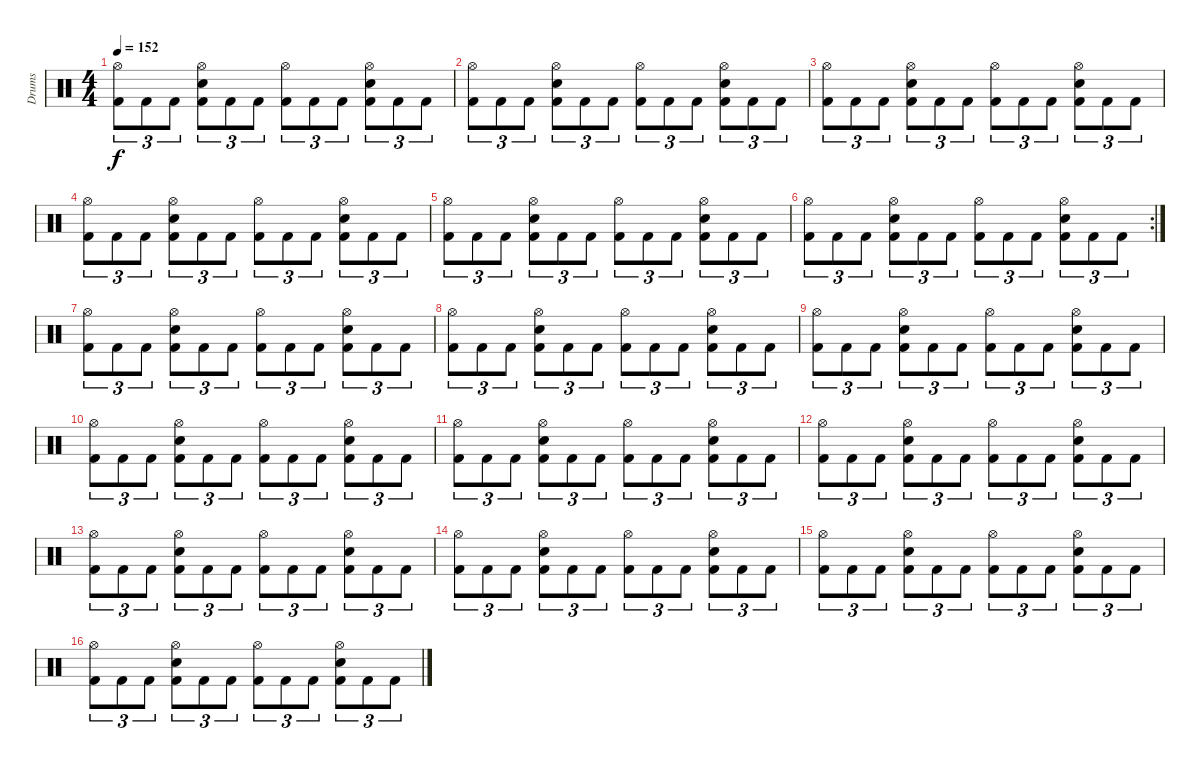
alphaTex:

\track ("Drums" "Drums") {instrument percussion}
\staff {score}
\articulation defaults
\ts (4 4)
\tempo 152
\clef neutral
\ks c
("Hi-Hat (open)" "Kick (hit) 2").8{tu (3 2) dy f} "Kick (hit) 2".8{tu (3 2)} "Kick (hit) 2".8{tu (3 2)} ("Hi-Hat (open)" "Snare (hit) 2" "Kick (hit) 2").8{tu (3 2)} "Kick (hit) 2".8{tu (3 2)} "Kick (hit) 2".8{tu (3 2)} ("Hi-Hat (open)" "Kick (hit) 2").8{tu (3 2)} "Kick (hit) 2".8{tu (3 2)} "Kick (hit) 2".8{tu (3 2)} ("Hi-Hat (open)" "Snare (hit) 2" "Kick (hit) 2").8{tu (3 2)} "Kick (hit) 2".8{tu (3 2)} "Kick (hit) 2".8{tu (3 2)} |
("Hi-Hat (open)" "Kick (hit) 2").8{tu (3 2)} "Kick (hit) 2".8{tu (3 2)} "Kick (hit) 2".8{tu (3 2)} ("Hi-Hat (open)" "Snare (hit) 2" "Kick (hit) 2").8{tu (3 2)} "Kick (hit) 2".8{tu (3 2)} "Kick (hit) 2".8{tu (3 2)} ("Hi-Hat (open)" "Kick (hit) 2").8{tu (3 2)} "Kick (hit) 2".8{tu (3 2)} "Kick (hit) 2".8{tu (3 2)} ("Hi-Hat (open)" "Snare (hit) 2" "Kick (hit) 2").8{tu (3 2)} "Kick (hit) 2".8{tu (3 2)} "Kick (hit) 2".8{tu (3 2)} |
("Hi-Hat (open)" "Kick (hit) 2").8{tu (3 2)} "Kick (hit) 2".8{tu (3 2)} "Kick (hit) 2".8{tu (3 2)} ("Hi-Hat (open)" "Snare (hit) 2" "Kick (hit) 2").8{tu (3 2)} "Kick (hit) 2".8{tu (3 2)} "Kick (hit) 2".8{tu (3 2)} ("Hi-Hat (open)" "Kick (hit) 2").8{tu (3 2)} "Kick (hit) 2".8{tu (3 2)} "Kick (hit) 2".8{tu (3 2)} ("Hi-Hat (open)" "Snare (hit) 2" "Kick (hit) 2").8{tu (3 2)} "Kick (hit) 2".8{tu (3 2)} "Kick (hit) 2".8{tu (3 2)} |
("Hi-Hat (open)" "Kick (hit) 2").8{tu (3 2)} "Kick (hit) 2".8{tu (3 2)} "Kick (hit) 2".8{tu (3 2)} ("Hi-Hat (open)" "Snare (hit) 2" "Kick (hit) 2").8{tu (3 2)} "Kick (hit) 2".8{tu (3 2)} "Kick (hit) 2".8{tu (3 2)} ("Hi-Hat (open)" "Kick (hit) 2").8{tu (3 2)} "Kick (hit) 2".8{tu (3 2)} "Kick (hit) 2".8{tu (3 2)} ("Hi-Hat (open)" "Snare (hit) 2" "Kick (hit) 2").8{tu (3 2)} "Kick (hit) 2".8{tu (3 2)} "Kick (hit) 2".8{tu (3 2)} |
("Hi-Hat (open)" "Kick (hit) 2").8{tu (3 2)} "Kick (hit) 2".8{tu (3 2)} "Kick (hit) 2".8{tu (3 2)} ("Hi-Hat (open)" "Snare (hit) 2" "Kick (hit) 2").8{tu (3 2)} "Kick (hit) 2".8{tu (3 2)} "Kick (hit) 2".8{tu (3 2)} ("Hi-Hat (open)" "Kick (hit) 2").8{tu (3 2)} "Kick (hit) 2".8{tu (3 2)} "Kick (hit) 2".8{tu (3 2)} ("Hi-Hat (open)" "Snare (hit) 2" "Kick (hit) 2").8{tu (3 2)} "Kick (hit) 2".8{tu (3 2)} "Kick (hit) 2".8{tu (3 2)} |
\rc 2
("Hi-Hat (open)" "Kick (hit) 2").8{tu (3 2)} "Kick (hit) 2".8{tu (3 2)} "Kick (hit) 2".8{tu (3 2)} ("Hi-Hat (open)" "Snare (hit) 2" "Kick (hit) 2").8{tu (3 2)} "Kick (hit) 2".8{tu (3 2)} "Kick (hit) 2".8{tu (3 2)} ("Hi-Hat (open)" "Kick (hit) 2").8{tu (3 2)} "Kick (hit) 2".8{tu (3 2)} "Kick (hit) 2".8{tu (3 2)} ("Hi-Hat (open)" "Snare (hit) 2" "Kick (hit) 2").8{tu (3 2)} "Kick (hit) 2".8{tu (3 2)} "Kick (hit) 2".8{tu (3 2)} |
("Hi-Hat (open)" "Kick (hit) 2").8{tu (3 2)} "Kick (hit) 2".8{tu (3 2)} "Kick (hit) 2".8{tu (3 2)} ("Hi-Hat (open)" "Snare (hit) 2" "Kick (hit) 2").8{tu (3 2)} "Kick (hit) 2".8{tu (3 2)} "Kick (hit) 2".8{tu (3 2)} ("Hi-Hat (open)" "Kick (hit) 2").8{tu (3 2)} "Kick (hit) 2".8{tu (3 2)} "Kick (hit) 2".8{tu (3 2)} ("Hi-Hat (open)" "Snare (hit) 2" "Kick (hit) 2").8{tu (3 2)} "Kick (hit) 2".8{tu (3 2)} "Kick (hit) 2".8{tu (3 2)} |
("Hi-Hat (open)" "Kick (hit) 2").8{tu (3 2)} "Kick (hit) 2".8{tu (3 2)} "Kick (hit) 2".8{tu (3 2)} ("Hi-Hat (open)" "Snare (hit) 2" "Kick (hit) 2").8{tu (3 2)} "Kick (hit) 2".8{tu (3 2)} "Kick (hit) 2".8{tu (3 2)} ("Hi-Hat (open)" "Kick (hit) 2").8{tu (3 2)} "Kick (hit) 2".8{tu (3 2)} "Kick (hit) 2".8{tu (3 2)} ("Hi-Hat (open)" "Snare (hit) 2" "Kick (hit) 2").8{tu (3 2)} "Kick (hit) 2".8{tu (3 2)} "Kick (hit) 2".8{tu (3 2)} |
("Hi-Hat (open)" "Kick (hit) 2").8{tu (3 2)} "Kick (hit) 2".8{tu (3 2)} "Kick (hit) 2".8{tu (3 2)} ("Hi-Hat (open)" "Snare (hit) 2" "Kick (hit) 2").8{tu (3 2)} "Kick (hit) 2".8{tu (3 2)} "Kick (hit) 2".8{tu (3 2)} ("Hi-Hat (open)" "Kick (hit) 2").8{tu (3 2)} "Kick (hit) 2".8{tu (3 2)} "Kick (hit) 2".8{tu (3 2)} ("Hi-Hat (open)" "Snare (hit) 2" "Kick (hit) 2").8{tu (3 2)} "Kick (hit) 2".8{tu (3 2)} "Kick (hit) 2".8{tu (3 2)} |
("Hi-Hat (open)" "Kick (hit) 2").8{tu (3 2)} "Kick (hit) 2".8{tu (3 2)} "Kick (hit) 2".8{tu (3 2)} ("Hi-Hat (open)" "Snare (hit) 2" "Kick (hit) 2").8{tu (3 2)} "Kick (hit) 2".8{tu (3 2)} "Kick (hit) 2".8{tu (3 2)} ("Hi-Hat (open)" "Kick (hit) 2").8{tu (3 2)} "Kick (hit) 2".8{tu (3 2)} "Kick (hit) 2".8{tu (3 2)} ("Hi-Hat (open)" "Snare (hit) 2" "Kick (hit) 2").8{tu (3 2)} "Kick (hit) 2".8{tu (3 2)} "Kick (hit) 2".8{tu (3 2)} |
("Hi-Hat (open)" "Kick (hit) 2").8{tu (3 2)} "Kick (hit) 2".8{tu (3 2)} "Kick (hit) 2".8{tu (3 2)} ("Hi-Hat (open)" "Snare (hit) 2" "Kick (hit) 2").8{tu (3 2)} "Kick (hit) 2".8{tu (3 2)} "Kick (hit) 2".8{tu (3 2)} ("Hi-Hat (open)" "Kick (hit) 2").8{tu (3 2)} "Kick (hit) 2".8{tu (3 2)} "Kick (hit) 2".8{tu (3 2)} ("Hi-Hat (open)" "Snare (hit) 2" "Kick (hit) 2").8{tu (3 2)} "Kick (hit) 2".8{tu (3 2)} "Kick (hit) 2".8{tu (3 2)} |
("Hi-Hat (open)" "Kick (hit) 2").8{tu (3 2)} "Kick (hit) 2".8{tu (3 2)} "Kick (hit) 2".8{tu (3 2)} ("Hi-Hat (open)" "Snare (hit) 2" "Kick (hit) 2").8{tu (3 2)} "Kick (hit) 2".8{tu (3 2)} "Kick (hit) 2".8{tu (3 2)} ("Hi-Hat (open)" "Kick (hit) 2").8{tu (3 2)} "Kick (hit) 2".8{tu (3 2)} "Kick (hit) 2".8{tu (3 2)} ("Hi-Hat (open)" "Snare (hit) 2" "Kick (hit) 2").8{tu (3 2)} "Kick (hit) 2".8{tu (3 2)} "Kick (hit) 2".8{tu (3 2)} |
("Hi-Hat (open)" "Kick (hit) 2").8{tu (3 2)} "Kick (hit) 2".8{tu (3 2)} "Kick (hit) 2".8{tu (3 2)} ("Hi-Hat (open)" "Snare (hit) 2" "Kick (hit) 2").8{tu (3 2)} "Kick (hit) 2".8{tu (3 2)} "Kick (hit) 2".8{tu (3 2)} ("Hi-Hat (open)" "Kick (hit) 2").8{tu (3 2)} "Kick (hit) 2".8{tu (3 2)} "Kick (hit) 2".8{tu (3 2)} ("Hi-Hat (open)" "Snare (hit) 2" "Kick (hit) 2").8{tu (3 2)} "Kick (hit) 2".8{tu (3 2)} "Kick (hit) 2".8{tu (3 2)} |
("Hi-Hat (open)" "Kick (hit) 2").8{tu (3 2)} "Kick (hit) 2".8{tu (3 2)} "Kick (hit) 2".8{tu (3 2)} ("Hi-Hat (open)" "Snare (hit) 2" "Kick (hit) 2").8{tu (3 2)} "Kick (hit) 2".8{tu (3 2)} "Kick (hit) 2".8{tu (3 2)} ("Hi-Hat (open)" "Kick (hit) 2").8{tu (3 2)} "Kick (hit) 2".8{tu (3 2)} "Kick (hit) 2".8{tu (3 2)} ("Hi-Hat (open)" "Snare (hit) 2" "Kick (hit) 2").8{tu (3 2)} "Kick (hit) 2".8{tu (3 2)} "Kick (hit) 2".8{tu (3 2)} |
("Hi-Hat (open)" "Kick (hit) 2").8{tu (3 2)} "Kick (hit) 2".8{tu (3 2)} "Kick (hit) 2".8{tu (3 2)} ("Hi-Hat (open)" "Snare (hit) 2" "Kick (hit) 2").8{tu (3 2)} "Kick (hit) 2".8{tu (3 2)} "Kick (hit) 2".8{tu (3 2)} ("Hi-Hat (open)" "Kick (hit) 2").8{tu (3 2)} "Kick (hit) 2".8{tu (3 2)} "Kick (hit) 2".8{tu (3 2)} ("Hi-Hat (open)" "Snare (hit) 2" "Kick (hit) 2").8{tu (3 2)} "Kick (hit) 2".8{tu (3 2)} "Kick (hit) 2".8{tu (3 2)} |
("Hi-Hat (open)" "Kick (hit) 2").8{tu (3 2)} "Kick (hit) 2".8{tu (3 2)} "Kick (hit) 2".8{tu (3 2)} ("Hi-Hat (open)" "Snare (hit) 2" "Kick (hit) 2").8{tu (3 2)} "Kick (hit) 2".8{tu (3 2)} "Kick (hit) 2".8{tu (3 2)} ("Hi-Hat (open)" "Kick (hit) 2").8{tu (3 2)} "Kick (hit) 2".8{tu (3 2)} "Kick (hit) 2".8{tu (3 2)} ("Hi-Hat (open)" "Snare (hit) 2" "Kick (hit) 2").8{tu (3 2)} "Kick (hit) 2".8{tu (3 2)} "Kick (hit) 2".8{tu (3 2)}
